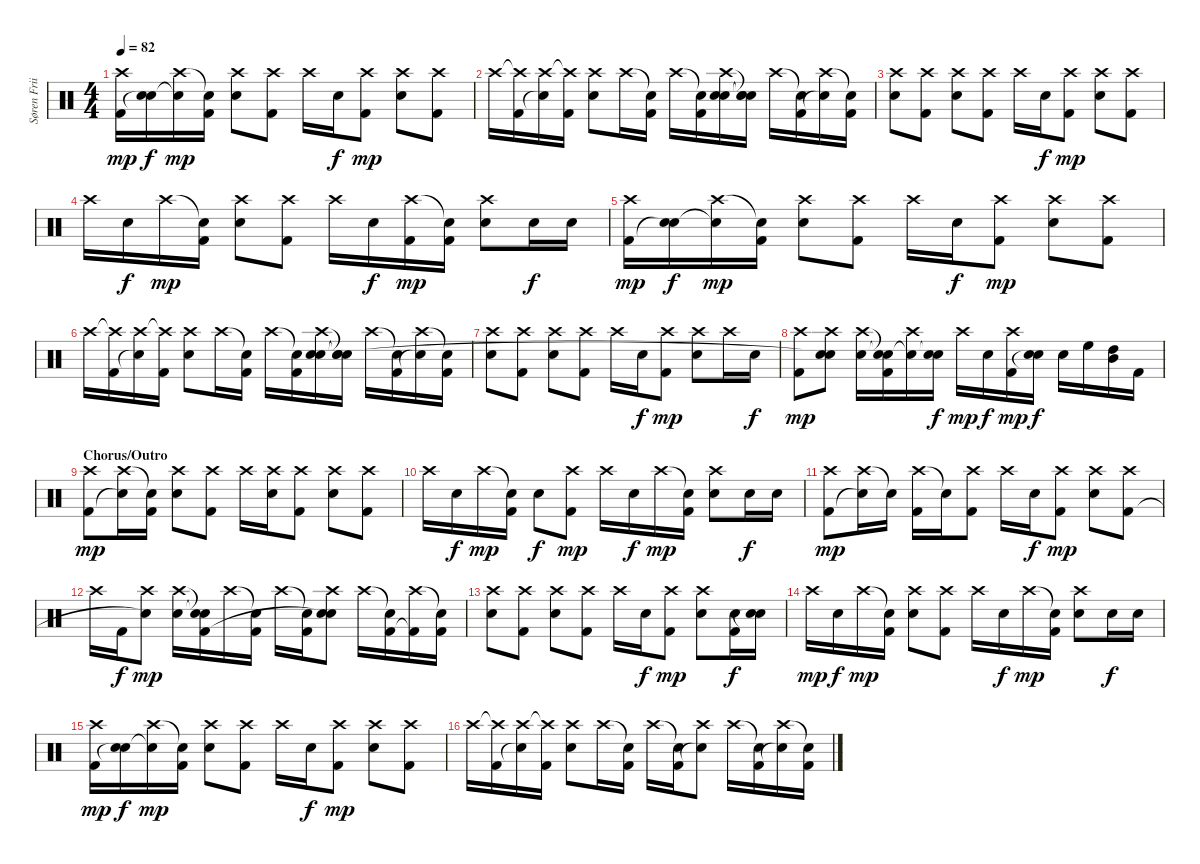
\track ("Søren Friis" "Søren Frii") {instrument percussion}
\staff {score}
\articulation defaults
\ts (4 4)
\tempo 82
\clef neutral
\ks c
("Crash high (hit)" "Kick (hit) 2").16{dy mp} ("Snare (hit) 2" "Snare (hit)"{t}).16{dy f} ("Crash high (hit)" "Snare (hit)"{t}).16{dy mp} ("Snare (hit)"{t} "Kick (hit) 2").16 ("Crash high (hit)" "Snare (hit) 2").8 ("Crash high (hit)" "Kick (hit) 2").8 "Crash high (hit)".16 "Snare (hit) 2".16{dy f} ("Crash high (hit)" "Kick (hit) 2").8{dy mp} ("Crash high (hit)" "Snare (hit) 2").8 ("Crash high (hit)" "Kick (hit) 2").8 |
"Crash high (hit)".16 ("Crash high (hit)"{t} "Kick (hit) 2").16 ("Crash high (hit)" "Snare (hit)"{t}).16 ("Crash high (hit)"{t} "Kick (hit) 2").16 ("Crash high (hit)" "Snare (hit) 2").8 "Crash high (hit)".16 ("Snare (hit)"{t} "Kick (hit) 2").16 "Crash high (hit)".16 ("Snare (hit)"{t} "Kick (hit) 2").16 ("Crash high (hit)" "Snare (hit) 2" "Snare (hit)").16 ("Snare (hit)"{t} "Snare (hit)"{t} "Snare (hit)"{t}).16 "Crash high (hit)".16 ("Snare (hit)"{t} "Kick (hit) 2").16 ("Crash high (hit)" "Snare (hit)"{t}).16 ("Snare (hit)"{t} "Kick (hit) 2").16 |
("Crash high (hit)" "Snare (hit) 2").8 ("Crash high (hit)" "Kick (hit) 2").8 ("Crash high (hit)" "Snare (hit) 2").8 ("Crash high (hit)" "Kick (hit) 2").8 "Crash high (hit)".16 "Snare (hit) 2".16{dy f} ("Crash high (hit)" "Kick (hit) 2").8{dy mp} ("Crash high (hit)" "Snare (hit) 2").8 ("Crash high (hit)" "Kick (hit) 2").8 |
"Crash high (hit)".16 "Snare (hit) 2".16{dy f} "Crash high (hit)".16{dy mp} ("Snare (hit)"{t} "Kick (hit) 2").16 ("Crash high (hit)" "Snare (hit) 2").8 ("Crash high (hit)" "Kick (hit) 2").8 "Crash high (hit)".16 "Snare (hit) 2".16{dy f} ("Crash high (hit)" "Kick (hit) 2").16{dy mp} ("Snare (hit)"{t} "Kick (hit) 2").16 ("Crash high (hit)" "Snare (hit) 2").8 "Snare (hit) 2".16{dy f} "Snare (hit) 2".16 |
("Crash high (hit)" "Kick (hit) 2").16{dy mp} ("Snare (hit) 2" "Snare (hit)"{t}).16{dy f} ("Crash high (hit)" "Snare (hit)"{t}).16{dy mp} ("Snare (hit)"{t} "Kick (hit) 2").16 ("Crash high (hit)" "Snare (hit) 2").8 ("Crash high (hit)" "Kick (hit) 2").8 "Crash high (hit)".16 "Snare (hit) 2".16{dy f} ("Crash high (hit)" "Kick (hit) 2").8{dy mp} ("Crash high (hit)" "Snare (hit) 2").8 ("Crash high (hit)" "Kick (hit) 2").8 |
"Crash high (hit)".16 ("Crash high (hit)"{t} "Kick (hit) 2").16 ("Crash high (hit)" "Snare (hit)"{t}).16 ("Crash high (hit)"{t} "Kick (hit) 2").16 ("Crash high (hit)" "Snare (hit) 2").8 "Crash high (hit)".16 ("Snare (hit)"{t} "Kick (hit) 2").16 "Crash high (hit)".16 ("Snare (hit)"{t} "Kick (hit) 2").16 ("Crash high (hit)" "Snare (hit) 2" "Snare (hit)").16 ("Snare (hit)"{t} "Snare (hit)"{t} "Snare (hit)"{t}).16 "Crash high (hit)".16 ("Snare (hit)"{t} "Kick (hit) 2").16 ("Crash high (hit)" "Snare (hit)"{t}).16 ("Snare (hit)"{t} "Kick (hit) 2").16 |
("Crash high (hit)" "Snare (hit) 2").8 ("Crash high (hit)" "Kick (hit) 2").8 ("Crash high (hit)" "Snare (hit) 2").8 ("Crash high (hit)" "Kick (hit) 2").8 "Crash high (hit)".16 "Snare (hit) 2".16{dy f} ("Crash high (hit)" "Kick (hit) 2").8{dy mp} ("Crash high (hit)" "Snare (hit) 2").8 "Crash high (hit)".16 "Snare (hit) 2".16{dy f} |
("Crash high (hit)" "Kick (hit) 2").8{dy mp} ("Crash high (hit)" "Snare (hit) 2" "Snare (hit)"{t}).8 ("Crash high (hit)" "Snare (hit) 2").16 ("Snare (hit)"{t} "Snare (hit)"{t} "Kick (hit) 2").16 ("Crash high (hit)" "Snare (hit)"{t}).16 ("Snare (hit) 2" "Snare (hit)"{t}).16{dy f} "Crash high (hit)".16{dy mp} "Snare (hit) 2".16{dy f} ("Crash high (hit)" "Kick (hit) 2").16{dy mp} ("Snare (hit) 2" "Snare (hit)"{t}).16{dy f} "Snare (hit) 2".16 "High Floor Tom (hit)".16 ("High Tom (hit)" "Mid Tom (hit)").16 "Kick (hit) 2".16 |
\section ("" "Chorus/Outro")
("Crash high (hit)" "Kick (hit) 2").8{dy mp} ("Crash high (hit)" "Snare (hit)"{t}).16 ("Snare (hit)"{t} "Kick (hit) 2").16 ("Crash high (hit)" "Snare (hit) 2").8 ("Crash high (hit)" "Kick (hit) 2").8 "Crash high (hit)".16 ("Crash high (hit)" "Snare (hit) 2").16 ("Crash high (hit)" "Kick (hit) 2").8 ("Crash high (hit)" "Snare (hit) 2").8 ("Crash high (hit)" "Kick (hit) 2").8 |
"Crash high (hit)".16 "Snare (hit) 2".16{dy f} "Crash high (hit)".16{dy mp} ("Snare (hit)"{t} "Kick (hit) 2").16 "Snare (hit) 2".8{dy f} ("Crash high (hit)" "Kick (hit) 2").8{dy mp} "Crash high (hit)".16 "Snare (hit) 2".16{dy f} "Crash high (hit)".16{dy mp} ("Snare (hit)"{t} "Kick (hit) 2").16 ("Crash high (hit)" "Snare (hit) 2").8 "Snare (hit) 2".16{dy f} "Snare (hit) 2".16 |
("Crash high (hit)" "Kick (hit) 2").8{dy mp} ("Crash high (hit)" "Snare (hit)"{t}).16 "Snare (hit)"{t}.16 ("Crash high (hit)" "Kick (hit) 2").16 "Snare (hit)"{t}.16 ("Crash high (hit)" "Kick (hit) 2").8 "Crash high (hit)".16 "Snare (hit) 2".16{dy f} ("Crash high (hit)" "Kick (hit) 2").8{dy mp} ("Crash high (hit)" "Snare (hit) 2").8 ("Crash high (hit)" "Kick (hit) 2").8 |
"Crash high (hit)".16 "Kick (hit) 2".16{dy f} ("Crash high (hit)" "Snare (hit)"{t}).8{dy mp} ("Crash high (hit)" "Snare (hit) 2").16 ("Snare (hit)"{t} "Snare (hit)"{t} "Kick (hit) 2").16 "Crash high (hit)".16 ("Snare (hit)"{t} "Kick (hit) 2").16 "Crash high (hit)".16 ("Snare (hit)"{t} "Kick (hit) 2").16 ("Crash high (hit)" "Snare (hit) 2" "Snare (hit)"{t}).8 "Crash high (hit)".16 ("Snare (hit)"{t} "Kick (hit) 2").16 ("Crash high (hit)" "Kick (hit) 2"{t}).16 ("Snare (hit)"{t} "Kick (hit) 2").16 |
("Crash high (hit)" "Snare (hit) 2").8 ("Crash high (hit)" "Kick (hit) 2").8 ("Crash high (hit)" "Snare (hit) 2").8 ("Crash high (hit)" "Kick (hit) 2").8 "Crash high (hit)".16 "Snare (hit) 2".16{dy f} ("Crash high (hit)" "Kick (hit) 2").8{dy mp} ("Crash high (hit)" "Snare (hit) 2").8 ("Snare (hit) 2" "Kick (hit) 2").16{dy f} ("Snare (hit) 2" "Snare (hit)"{t}).16 |
"Crash high (hit)".16{dy mp} "Snare (hit) 2".16{dy f} "Crash high (hit)".16{dy mp} ("Snare (hit)"{t} "Kick (hit) 2").16 ("Crash high (hit)" "Snare (hit) 2").8 ("Crash high (hit)" "Kick (hit) 2").8 "Crash high (hit)".16 "Snare (hit) 2".16{dy f} "Crash high (hit)".16{dy mp} ("Snare (hit)"{t} "Kick (hit) 2").16 ("Crash high (hit)" "Snare (hit) 2").8 "Snare (hit) 2".16{dy f} "Snare (hit) 2".16 |
("Crash high (hit)" "Kick (hit) 2").16{dy mp} ("Snare (hit) 2" "Snare (hit)"{t}).16{dy f} ("Crash high (hit)" "Snare (hit)"{t}).16{dy mp} ("Snare (hit)"{t} "Kick (hit) 2").16 ("Crash high (hit)" "Snare (hit) 2").8 ("Crash high (hit)" "Kick (hit) 2").8 "Crash high (hit)".16 "Snare (hit) 2".16{dy f} ("Crash high (hit)" "Kick (hit) 2").8{dy mp} ("Crash high (hit)" "Snare (hit) 2").8 ("Crash high (hit)" "Kick (hit) 2").8 |
"Crash high (hit)".16 ("Crash high (hit)"{t} "Kick (hit) 2").16 ("Crash high (hit)" "Snare (hit)"{t}).16 ("Crash high (hit)"{t} "Kick (hit) 2").16 ("Crash high (hit)" "Snare (hit) 2").8 "Crash high (hit)".16 ("Snare (hit)"{t} "Kick (hit) 2").16 "Crash high (hit)".16 ("Snare (hit)"{t} "Kick (hit) 2").16 ("Crash high (hit)" "Snare (hit)"{t}).8 "Crash high (hit)".16 ("Snare (hit)"{t} "Kick (hit) 2").16 ("Crash high (hit)" "Snare (hit)"{t}).16 ("Snare (hit)"{t} "Kick (hit) 2").16
